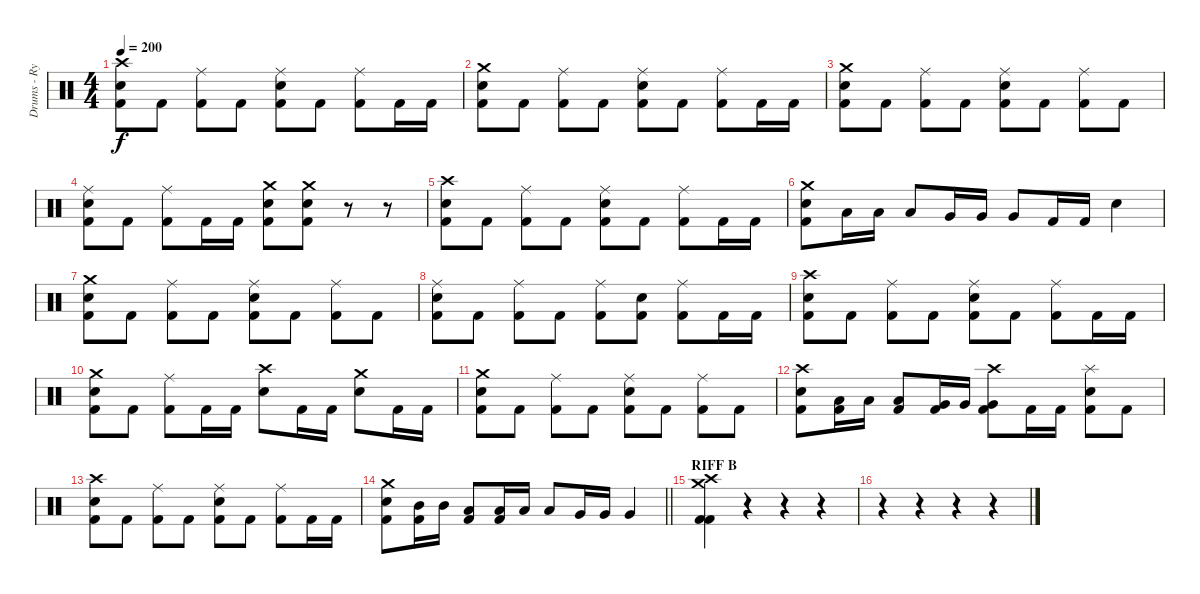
\track ("Drums - Ryan Bates" "Drums - Ry") {instrument percussion}
\staff {score}
\articulation defaults
\ts (4 4)
\tempo 200
\clef neutral
\ks c
("Crash high (hit)" "Snare (hit) 2" "Kick (hit) 2").8{dy f} "Kick (hit) 2".8 ("Ride (middle)" "Kick (hit) 2").8 "Kick (hit) 2".8 ("Ride (middle)" "Snare (hit) 2" "Kick (hit) 2").8 "Kick (hit) 2".8 ("Ride (middle)" "Kick (hit) 2").8 "Kick (hit) 2".16 "Kick (hit) 2".16 |
("Crash medium (hit)" "Snare (hit) 2" "Kick (hit) 2").8 "Kick (hit) 2".8 ("Ride (middle)" "Kick (hit) 2").8 "Kick (hit) 2".8 ("Ride (middle)" "Snare (hit) 2" "Kick (hit) 2").8 "Kick (hit) 2".8 ("Ride (middle)" "Kick (hit) 2").8 "Kick (hit) 2".16 "Kick (hit) 2".16 |
("Crash medium (hit)" "Snare (hit) 2" "Kick (hit) 2").8 "Kick (hit) 2".8 ("Ride (middle)" "Kick (hit) 2").8 "Kick (hit) 2".8 ("Ride (middle)" "Snare (hit) 2" "Kick (hit) 2").8 "Kick (hit) 2".8 ("Ride (middle)" "Kick (hit) 2").8 "Kick (hit) 2".8 |
("Ride (middle)" "Snare (hit) 2" "Kick (hit) 2").8 "Kick (hit) 2".8 ("Ride (middle)" "Kick (hit) 2").8 "Kick (hit) 2".16 "Kick (hit) 2".16 ("Crash medium (hit)" "Snare (hit) 2" "Kick (hit) 2").8 ("Crash medium (hit)" "Snare (hit) 2" "Kick (hit) 2").8 r.8 r.8 |
("Crash high (hit)" "Snare (hit) 2" "Kick (hit) 2").8 "Kick (hit) 2".8 ("Ride (middle)" "Kick (hit) 2").8 "Kick (hit) 2".8 ("Ride (middle)" "Snare (hit) 2" "Kick (hit) 2").8 "Kick (hit) 2".8 ("Ride (middle)" "Kick (hit) 2").8 "Kick (hit) 2".16 "Kick (hit) 2".16 |
("Crash medium (hit)" "Snare (hit) 2" "Kick (hit) 2").8 "Low Tom (hit)".16 "Low Tom (hit)".16 "Low Tom (hit)".8 "Very Low Tom (hit)".16 "Very Low Tom (hit)".16 "Very Low Tom (hit)".8 "Kick (hit) 2".16 "Kick (hit) 2".16 "Snare (hit) 2".4 |
("Crash medium (hit)" "Snare (hit) 2" "Kick (hit) 2").8 "Kick (hit) 2".8 ("Ride (middle)" "Kick (hit) 2").8 "Kick (hit) 2".8 ("Ride (middle)" "Snare (hit) 2" "Kick (hit) 2").8 "Kick (hit) 2".8 ("Ride (middle)" "Kick (hit) 2").8 "Kick (hit) 2".8 |
("Ride (middle)" "Snare (hit) 2" "Kick (hit) 2").8 "Kick (hit) 2".8 ("Ride (middle)" "Kick (hit) 2").8 "Kick (hit) 2".8 ("Ride (middle)" "Kick (hit) 2").8 ("Snare (hit) 2" "Kick (hit) 2").8 ("Ride (middle)" "Kick (hit) 2").8 "Kick (hit) 2".16 "Kick (hit) 2".16 |
("Crash high (hit)" "Snare (hit) 2" "Kick (hit) 2").8 "Kick (hit) 2".8 ("Ride (middle)" "Kick (hit) 2").8 "Kick (hit) 2".8 ("Ride (middle)" "Snare (hit) 2" "Kick (hit) 2").8 "Kick (hit) 2".8 ("Ride (middle)" "Kick (hit) 2").8 "Kick (hit) 2".16 "Kick (hit) 2".16 |
("Crash medium (hit)" "Snare (hit) 2" "Kick (hit) 2").8 "Kick (hit) 2".8 ("Ride (middle)" "Kick (hit) 2").8 "Kick (hit) 2".16 "Kick (hit) 2".16 ("Crash high (hit)" "Snare (hit) 2").8 "Kick (hit) 2".16 "Kick (hit) 2".16 ("Crash medium (hit)" "Snare (hit) 2").8 "Kick (hit) 2".16 "Kick (hit) 2".16 |
("Crash medium (hit)" "Snare (hit) 2" "Kick (hit) 2").8 "Kick (hit) 2".8 ("Ride (middle)" "Kick (hit) 2").8 "Kick (hit) 2".8 ("Ride (middle)" "Snare (hit) 2" "Kick (hit) 2").8 "Kick (hit) 2".8 ("Ride (middle)" "Kick (hit) 2").8 "Kick (hit) 2".8 |
("Crash high (hit)" "Snare (hit) 2" "Kick (hit) 2").8 ("Low Tom (hit)" "Kick (hit) 2").16 "Low Tom (hit)".16 ("Low Tom (hit)" "Kick (hit) 2").8 ("Very Low Tom (hit)" "Kick (hit) 2").16 "Very Low Tom (hit)".16 ("Crash high (hit)" "Very Low Tom (hit)" "Kick (hit) 2").8 "Kick (hit) 2".16 "Kick (hit) 2".16 ("Splash (hit)" "Snare (hit) 2" "Kick (hit) 2").8 "Kick (hit) 2".8 |
("Crash high (hit)" "Snare (hit) 2" "Kick (hit) 2").8 "Kick (hit) 2".8 ("Ride (middle)" "Kick (hit) 2").8 "Kick (hit) 2".8 ("Ride (middle)" "Snare (hit) 2" "Kick (hit) 2").8 "Kick (hit) 2".8 ("Ride (middle)" "Kick (hit) 2").8 "Kick (hit) 2".16 "Kick (hit) 2".16 |
\barLineRight lightlight
("Crash medium (hit)" "Snare (hit) 2" "Kick (hit) 2").8 ("Mid Tom (hit)" "Kick (hit) 2").16 "Mid Tom (hit)".16 ("Low Tom (hit)" "Kick (hit) 2").8 ("Low Tom (hit)" "Kick (hit) 2").16 "Low Tom (hit)".16 "Low Tom (hit)".8 "Very Low Tom (hit)".16 "Very Low Tom (hit)".16 "Very Low Tom (hit)".4 |
\section ("" "RIFF B")
("Crash medium (hit)" "Crash high (hit)" "Kick (hit) 2" "Kick (hit) 2").4 r.4 r.4 r.4 |
r.4 r.4 r.4 r.4
